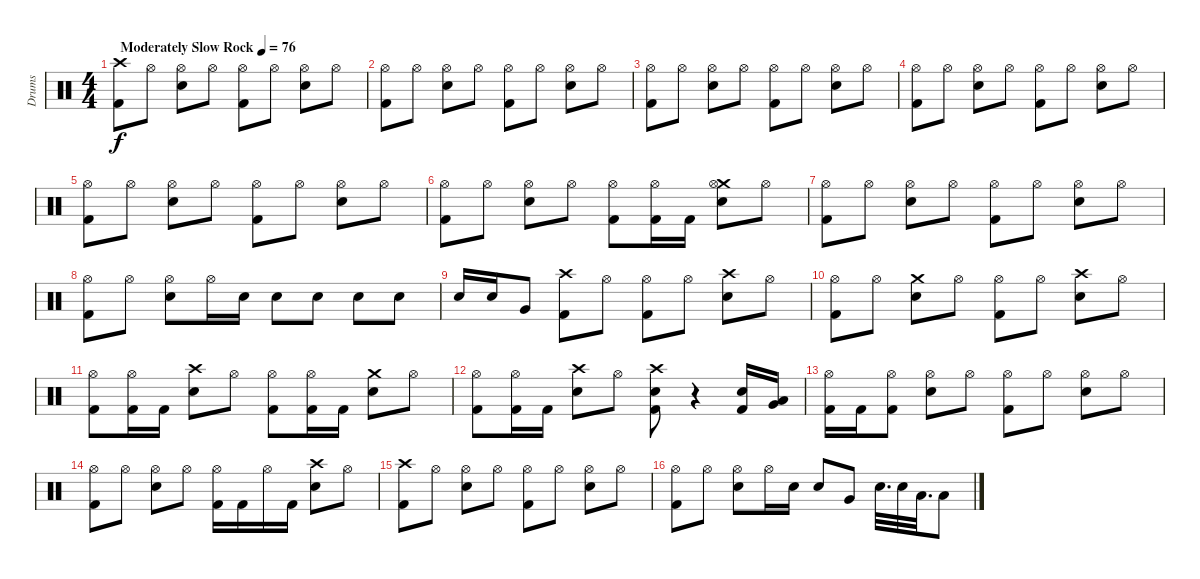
\track ("Drums" "Drums") {instrument percussion}
\staff {score}
\articulation defaults
\ts (4 4)
\tempo (76 "Moderately Slow Rock")
\clef neutral
\ks c
("Crash high (hit)" "Kick (hit) 2").8{dy f} "Hi-Hat (open)".8 ("Snare (hit) 2" "Hi-Hat (open)").8 "Hi-Hat (open)".8 ("Kick (hit) 2" "Hi-Hat (open)").8 "Hi-Hat (open)".8 ("Snare (hit) 2" "Hi-Hat (open)").8 "Hi-Hat (open)".8 |
("Kick (hit) 2" "Hi-Hat (open)").8 "Hi-Hat (open)".8 ("Snare (hit) 2" "Hi-Hat (open)").8 "Hi-Hat (open)".8 ("Kick (hit) 2" "Hi-Hat (open)").8 "Hi-Hat (open)".8 ("Snare (hit) 2" "Hi-Hat (open)").8 "Hi-Hat (open)".8 |
("Kick (hit) 2" "Hi-Hat (open)").8 "Hi-Hat (open)".8 ("Hi-Hat (open)" "Snare (hit) 2").8 "Hi-Hat (open)".8 ("Hi-Hat (open)" "Kick (hit) 2").8 "Hi-Hat (open)".8 ("Snare (hit) 2" "Hi-Hat (open)").8 "Hi-Hat (open)".8 |
("Kick (hit) 2" "Hi-Hat (open)").8 "Hi-Hat (open)".8 ("Snare (hit) 2" "Hi-Hat (open)").8 "Hi-Hat (open)".8 ("Kick (hit) 2" "Hi-Hat (open)").8 "Hi-Hat (open)".8 ("Snare (hit) 2" "Hi-Hat (open)").8 "Hi-Hat (open)".8 |
("Kick (hit) 2" "Hi-Hat (open)").8 "Hi-Hat (open)".8 ("Snare (hit) 2" "Hi-Hat (open)").8 "Hi-Hat (open)".8 ("Kick (hit) 2" "Hi-Hat (open)").8 "Hi-Hat (open)".8 ("Snare (hit) 2" "Hi-Hat (open)").8 "Hi-Hat (open)".8 |
("Kick (hit) 2" "Hi-Hat (open)").8 "Hi-Hat (open)".8 ("Snare (hit) 2" "Hi-Hat (open)").8 "Hi-Hat (open)".8 ("Kick (hit) 2" "Hi-Hat (open)").8 ("Kick (hit) 2" "Hi-Hat (open)").16 "Kick (hit) 2".16 ("Crash medium (hit)" "Hi-Hat (open)" "Snare (hit) 2").8 "Hi-Hat (open)".8 |
("Kick (hit) 2" "Hi-Hat (open)").8 "Hi-Hat (open)".8 ("Snare (hit) 2" "Hi-Hat (open)").8 "Hi-Hat (open)".8 ("Kick (hit) 2" "Hi-Hat (open)").8 "Hi-Hat (open)".8 ("Snare (hit) 2" "Hi-Hat (open)").8 "Hi-Hat (open)".8 |
("Hi-Hat (open)" "Kick (hit) 2").8 "Hi-Hat (open)".8 ("Hi-Hat (open)" "Snare (hit) 2").8 "Hi-Hat (open)".16 "Snare (hit) 2".16 "Snare (hit) 2".8 "Snare (hit) 2".8 "Snare (hit) 2".8 "Snare (hit) 2".8 |
"Snare (hit) 2".16 "Snare (hit) 2".16 "Very Low Tom (hit)".8 ("Crash high (hit)" "Kick (hit) 2").8 "Hi-Hat (open)".8 ("Kick (hit) 2" "Hi-Hat (open)").8 "Hi-Hat (open)".8 ("Crash high (hit)" "Snare (hit) 2").8 "Hi-Hat (open)".8 |
("Kick (hit) 2" "Hi-Hat (open)").8 "Hi-Hat (open)".8 ("Snare (hit) 2" "Crash medium (hit)").8 "Hi-Hat (open)".8 ("Kick (hit) 2" "Hi-Hat (open)").8 "Hi-Hat (open)".8 ("Crash high (hit)" "Snare (hit) 2").8 "Hi-Hat (open)".8 |
("Kick (hit) 2" "Hi-Hat (open)").8 ("Hi-Hat (open)" "Kick (hit) 2").16 "Kick (hit) 2".16 ("Crash high (hit)" "Snare (hit) 2").8 "Hi-Hat (open)".8 ("Kick (hit) 2" "Hi-Hat (open)").8 ("Hi-Hat (open)" "Kick (hit) 2").16 "Kick (hit) 2".16 ("Snare (hit) 2" "Crash medium (hit)").8 "Hi-Hat (open)".8 |
("Kick (hit) 2" "Hi-Hat (open)").8 ("Hi-Hat (open)" "Kick (hit) 2").16 "Kick (hit) 2".16 ("Crash high (hit)" "Snare (hit) 2").8 "Hi-Hat (open)".8 ("Snare (hit) 2" "Crash high (hit)" "Kick (hit) 2").8 r.4 ("Kick (hit) 2" "Snare (hit) 2").16 ("Very Low Tom (hit)" "Low Tom (hit)").16 |
("Hi-Hat (open)" "Kick (hit) 2").16 "Kick (hit) 2".16 ("Kick (hit) 2" "Hi-Hat (open)").8 ("Snare (hit) 2" "Hi-Hat (open)").8 "Hi-Hat (open)".8 ("Hi-Hat (open)" "Kick (hit) 2").8 "Hi-Hat (open)".8 ("Hi-Hat (open)" "Snare (hit) 2").8 "Hi-Hat (open)".8 |
("Hi-Hat (open)" "Kick (hit) 2").8 "Hi-Hat (open)".8 ("Snare (hit) 2" "Hi-Hat (open)").8 "Hi-Hat (open)".8 ("Hi-Hat (open)" "Kick (hit) 2").16 "Kick (hit) 2".16 "Hi-Hat (open)".16 "Kick (hit) 2".16 ("Crash high (hit)" "Snare (hit) 2").8 "Hi-Hat (open)".8 |
("Kick (hit) 2" "Crash high (hit)").8 "Hi-Hat (open)".8 ("Snare (hit) 2" "Hi-Hat (open)").8 "Hi-Hat (open)".8 ("Kick (hit) 2" "Hi-Hat (open)").8 "Hi-Hat (open)".8 ("Snare (hit) 2" "Hi-Hat (open)").8 "Hi-Hat (open)".8 |
("Kick (hit) 2" "Hi-Hat (open)").8 "Hi-Hat (open)".8 ("Snare (hit) 2" "Hi-Hat (open)").8 "Hi-Hat (open)".16 "Snare (hit) 2".16 "Snare (hit) 2".8 "Very Low Tom (hit)".8 "Snare (hit) 2".32{d} "Snare (hit) 2".32 "Low Tom (hit)".32{d} "Low Floor Tom (hit)".8
